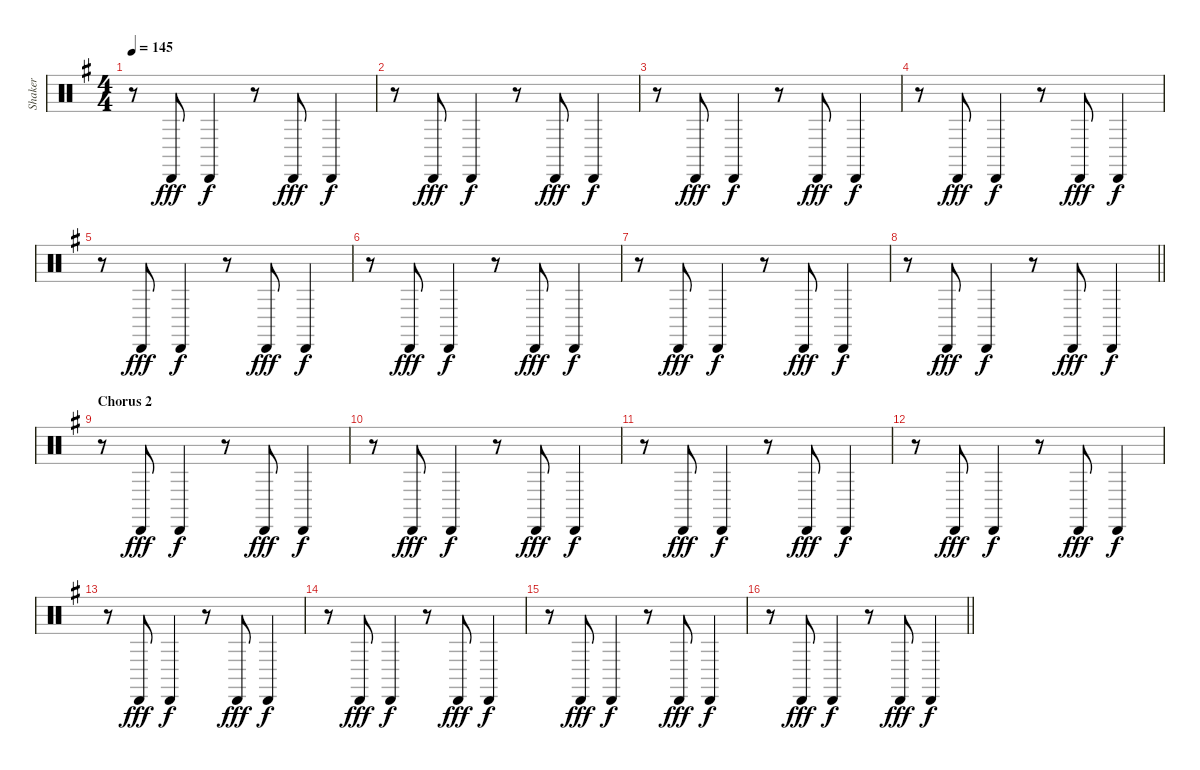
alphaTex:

\track ("Shaker" "Shaker") {instrument percussion}
\staff {score}
\articulation defaults
\ts (4 4)
\tempo 145
\clef neutral
\ks g
r.8{dy f} "Cabasa (hit)".8{dy fff} "Cabasa (hit)".4{dy f} r.8 "Cabasa (hit)".8{dy fff} "Cabasa (hit)".4{dy f} |
r.8 "Cabasa (hit)".8{dy fff} "Cabasa (hit)".4{dy f} r.8 "Cabasa (hit)".8{dy fff} "Cabasa (hit)".4{dy f} |
r.8 "Cabasa (hit)".8{dy fff} "Cabasa (hit)".4{dy f} r.8 "Cabasa (hit)".8{dy fff} "Cabasa (hit)".4{dy f} |
r.8 "Cabasa (hit)".8{dy fff} "Cabasa (hit)".4{dy f} r.8 "Cabasa (hit)".8{dy fff} "Cabasa (hit)".4{dy f} |
r.8 "Cabasa (hit)".8{dy fff} "Cabasa (hit)".4{dy f} r.8 "Cabasa (hit)".8{dy fff} "Cabasa (hit)".4{dy f} |
r.8 "Cabasa (hit)".8{dy fff} "Cabasa (hit)".4{dy f} r.8 "Cabasa (hit)".8{dy fff} "Cabasa (hit)".4{dy f} |
r.8 "Cabasa (hit)".8{dy fff} "Cabasa (hit)".4{dy f} r.8 "Cabasa (hit)".8{dy fff} "Cabasa (hit)".4{dy f} |
\barLineRight lightlight
r.8 "Cabasa (hit)".8{dy fff} "Cabasa (hit)".4{dy f} r.8 "Cabasa (hit)".8{dy fff} "Cabasa (hit)".4{dy f} |
\section ("" "Chorus 2")
r.8 "Cabasa (hit)".8{dy fff} "Cabasa (hit)".4{dy f} r.8 "Cabasa (hit)".8{dy fff} "Cabasa (hit)".4{dy f} |
r.8 "Cabasa (hit)".8{dy fff} "Cabasa (hit)".4{dy f} r.8 "Cabasa (hit)".8{dy fff} "Cabasa (hit)".4{dy f} |
r.8 "Cabasa (hit)".8{dy fff} "Cabasa (hit)".4{dy f} r.8 "Cabasa (hit)".8{dy fff} "Cabasa (hit)".4{dy f} |
r.8 "Cabasa (hit)".8{dy fff} "Cabasa (hit)".4{dy f} r.8 "Cabasa (hit)".8{dy fff} "Cabasa (hit)".4{dy f} |
r.8 "Cabasa (hit)".8{dy fff} "Cabasa (hit)".4{dy f} r.8 "Cabasa (hit)".8{dy fff} "Cabasa (hit)".4{dy f} |
r.8 "Cabasa (hit)".8{dy fff} "Cabasa (hit)".4{dy f} r.8 "Cabasa (hit)".8{dy fff} "Cabasa (hit)".4{dy f} |
r.8 "Cabasa (hit)".8{dy fff} "Cabasa (hit)".4{dy f} r.8 "Cabasa (hit)".8{dy fff} "Cabasa (hit)".4{dy f} |
\barLineRight lightlight
r.8 "Cabasa (hit)".8{dy fff} "Cabasa (hit)".4{dy f} r.8 "Cabasa (hit)".8{dy fff} "Cabasa (hit)".4{dy f}
